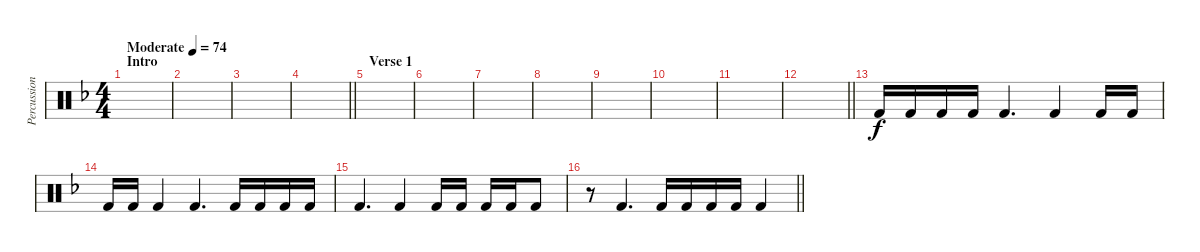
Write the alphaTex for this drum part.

\track ("Percussion" "Percussion") {instrument percussion}
\staff {score}
\articulation defaults
\ts (4 4)
\section ("" "Intro")
\tempo (74 "Moderate")
\clef neutral
\ks f
|
|
|
\barLineRight lightlight
|
\section ("" "Verse 1")
|
|
|
|
|
|
|
\barLineRight lightlight
|
"Kick (hit) 2".16 "Kick (hit) 2".16 "Kick (hit) 2".16 "Kick (hit) 2".16 "Kick (hit) 2".4{d} "Kick (hit) 2".4 "Kick (hit) 2".16 "Kick (hit) 2".16 |
"Kick (hit) 2".16 "Kick (hit) 2".16 "Kick (hit) 2".4 "Kick (hit) 2".4{d} "Kick (hit) 2".16 "Kick (hit) 2".16 "Kick (hit) 2".16 "Kick (hit) 2".16 |
"Kick (hit) 2".4{d} "Kick (hit) 2".4 "Kick (hit) 2".16 "Kick (hit) 2".16 "Kick (hit) 2".16 "Kick (hit) 2".16 "Kick (hit) 2".8 |
\barLineRight lightlight
r.8 "Kick (hit) 2".4{d} "Kick (hit) 2".16 "Kick (hit) 2".16 "Kick (hit) 2".16 "Kick (hit) 2".16 "Kick (hit) 2".4
